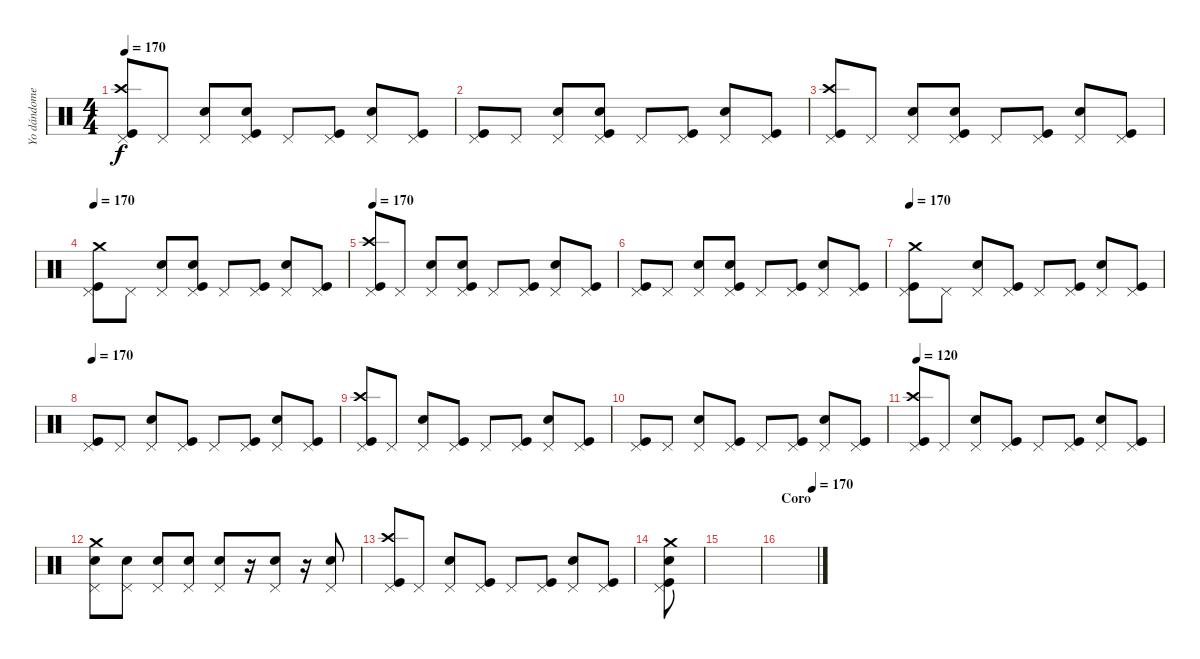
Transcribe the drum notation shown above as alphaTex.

\track ("Yo dándomelas de batero." "Yo dándome") {instrument percussion}
\staff {score}
\articulation defaults
\ts (4 4)
\tempo 170
\clef neutral
\ks c
("Pedal Hi-Hat (hit)" "Crash high (hit)" "Kick (hit)").8{dy f} "Pedal Hi-Hat (hit)".8 ("Pedal Hi-Hat (hit)" "Electric Snare (hit)").8 ("Pedal Hi-Hat (hit)" "Electric Snare (hit)" "Kick (hit)").8 "Pedal Hi-Hat (hit)".8 ("Pedal Hi-Hat (hit)" "Kick (hit)").8 ("Pedal Hi-Hat (hit)" "Electric Snare (hit)").8 ("Pedal Hi-Hat (hit)" "Kick (hit)").8 |
("Pedal Hi-Hat (hit)" "Kick (hit)").8 "Pedal Hi-Hat (hit)".8 ("Pedal Hi-Hat (hit)" "Electric Snare (hit)").8 ("Pedal Hi-Hat (hit)" "Electric Snare (hit)" "Kick (hit)").8 "Pedal Hi-Hat (hit)".8 ("Pedal Hi-Hat (hit)" "Kick (hit)").8 ("Pedal Hi-Hat (hit)" "Electric Snare (hit)").8 ("Pedal Hi-Hat (hit)" "Kick (hit)").8 |
("Pedal Hi-Hat (hit)" "Crash high (hit)" "Kick (hit)").8 "Pedal Hi-Hat (hit)".8 ("Pedal Hi-Hat (hit)" "Electric Snare (hit)").8 ("Pedal Hi-Hat (hit)" "Electric Snare (hit)" "Kick (hit)").8 "Pedal Hi-Hat (hit)".8 ("Pedal Hi-Hat (hit)" "Kick (hit)").8 ("Pedal Hi-Hat (hit)" "Electric Snare (hit)").8 ("Pedal Hi-Hat (hit)" "Kick (hit)").8 |
\tempo 170
("Pedal Hi-Hat (hit)" "Crash medium (hit)" "Kick (hit)").8 "Pedal Hi-Hat (hit)".8 ("Pedal Hi-Hat (hit)" "Electric Snare (hit)").8 ("Pedal Hi-Hat (hit)" "Electric Snare (hit)" "Kick (hit)").8 "Pedal Hi-Hat (hit)".8 ("Pedal Hi-Hat (hit)" "Kick (hit)").8 ("Pedal Hi-Hat (hit)" "Electric Snare (hit)").8 ("Pedal Hi-Hat (hit)" "Kick (hit)").8 |
\tempo 170
("Pedal Hi-Hat (hit)" "Crash high (hit)" "Kick (hit)").8 "Pedal Hi-Hat (hit)".8 ("Pedal Hi-Hat (hit)" "Electric Snare (hit)").8 ("Pedal Hi-Hat (hit)" "Electric Snare (hit)" "Kick (hit)").8 "Pedal Hi-Hat (hit)".8 ("Pedal Hi-Hat (hit)" "Kick (hit)").8 ("Pedal Hi-Hat (hit)" "Electric Snare (hit)").8 ("Pedal Hi-Hat (hit)" "Kick (hit)").8 |
("Pedal Hi-Hat (hit)" "Kick (hit)").8 "Pedal Hi-Hat (hit)".8 ("Pedal Hi-Hat (hit)" "Electric Snare (hit)").8 ("Pedal Hi-Hat (hit)" "Electric Snare (hit)" "Kick (hit)").8 "Pedal Hi-Hat (hit)".8 ("Pedal Hi-Hat (hit)" "Kick (hit)").8 ("Pedal Hi-Hat (hit)" "Electric Snare (hit)").8 ("Pedal Hi-Hat (hit)" "Kick (hit)").8 |
\tempo 170
("Pedal Hi-Hat (hit)" "Crash medium (hit)" "Kick (hit)").8 "Pedal Hi-Hat (hit)".8 ("Pedal Hi-Hat (hit)" "Electric Snare (hit)").8 ("Pedal Hi-Hat (hit)" "Kick (hit)").8 "Pedal Hi-Hat (hit)".8 ("Pedal Hi-Hat (hit)" "Kick (hit)").8 ("Pedal Hi-Hat (hit)" "Electric Snare (hit)").8 ("Pedal Hi-Hat (hit)" "Kick (hit)").8 |
\tempo 170
("Pedal Hi-Hat (hit)" "Kick (hit)").8 "Pedal Hi-Hat (hit)".8 ("Pedal Hi-Hat (hit)" "Electric Snare (hit)").8 ("Pedal Hi-Hat (hit)" "Kick (hit)").8 "Pedal Hi-Hat (hit)".8 ("Pedal Hi-Hat (hit)" "Kick (hit)").8 ("Pedal Hi-Hat (hit)" "Electric Snare (hit)").8 ("Pedal Hi-Hat (hit)" "Kick (hit)").8 |
("Pedal Hi-Hat (hit)" "Crash high (hit)" "Kick (hit)").8 "Pedal Hi-Hat (hit)".8 ("Pedal Hi-Hat (hit)" "Electric Snare (hit)").8 ("Pedal Hi-Hat (hit)" "Kick (hit)").8 "Pedal Hi-Hat (hit)".8 ("Pedal Hi-Hat (hit)" "Kick (hit)").8 ("Pedal Hi-Hat (hit)" "Electric Snare (hit)").8 ("Pedal Hi-Hat (hit)" "Kick (hit)").8 |
("Pedal Hi-Hat (hit)" "Kick (hit)").8 "Pedal Hi-Hat (hit)".8 ("Pedal Hi-Hat (hit)" "Electric Snare (hit)").8 ("Pedal Hi-Hat (hit)" "Kick (hit)").8 "Pedal Hi-Hat (hit)".8 ("Pedal Hi-Hat (hit)" "Kick (hit)").8 ("Pedal Hi-Hat (hit)" "Electric Snare (hit)").8 ("Pedal Hi-Hat (hit)" "Kick (hit)").8 |
\tempo 120
("Pedal Hi-Hat (hit)" "Crash high (hit)" "Kick (hit)").8 "Pedal Hi-Hat (hit)".8 ("Pedal Hi-Hat (hit)" "Electric Snare (hit)").8 ("Pedal Hi-Hat (hit)" "Kick (hit)").8 "Pedal Hi-Hat (hit)".8 ("Pedal Hi-Hat (hit)" "Kick (hit)").8 ("Pedal Hi-Hat (hit)" "Electric Snare (hit)").8 ("Pedal Hi-Hat (hit)" "Kick (hit)").8 |
("Pedal Hi-Hat (hit)" "Crash medium (hit)" "Electric Snare (hit)").8 ("Pedal Hi-Hat (hit)" "Electric Snare (hit)").8 ("Pedal Hi-Hat (hit)" "Electric Snare (hit)").8 ("Pedal Hi-Hat (hit)" "Electric Snare (hit)").8 ("Pedal Hi-Hat (hit)" "Electric Snare (hit)").8 r.16 ("Pedal Hi-Hat (hit)" "Electric Snare (hit)").8 r.16 ("Pedal Hi-Hat (hit)" "Electric Snare (hit)").8 |
("Pedal Hi-Hat (hit)" "Crash high (hit)" "Kick (hit)").8 "Pedal Hi-Hat (hit)".8 ("Pedal Hi-Hat (hit)" "Electric Snare (hit)").8 ("Pedal Hi-Hat (hit)" "Kick (hit)").8 "Pedal Hi-Hat (hit)".8 ("Pedal Hi-Hat (hit)" "Kick (hit)").8 ("Pedal Hi-Hat (hit)" "Electric Snare (hit)").8 ("Pedal Hi-Hat (hit)" "Kick (hit)").8 |
("Pedal Hi-Hat (hit)" "Crash medium (hit)" "Electric Snare (hit)" "Kick (hit)").8 |
|
\section ("" "Coro")
\tempo (170 0.875)
